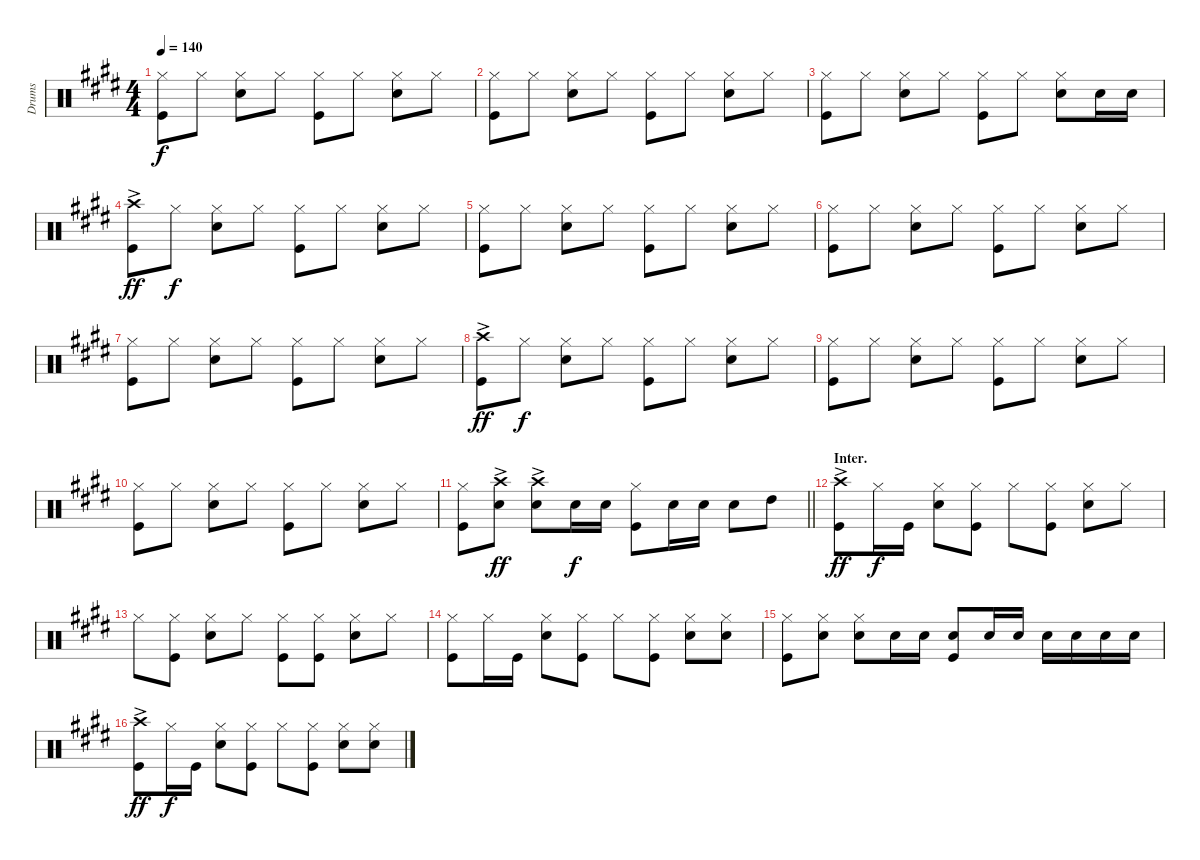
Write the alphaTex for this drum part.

\track ("Drums" "Drums") {instrument percussion}
\staff {score}
\articulation defaults
\ts (4 4)
\tempo 140
\clef neutral
\ks e
("Hi-Hat (closed)" "Kick (hit)").8{dy f} "Hi-Hat (closed)".8 ("Snare (hit) 2" "Hi-Hat (closed)").8 "Hi-Hat (closed)".8 ("Kick (hit)" "Hi-Hat (closed)").8 "Hi-Hat (closed)".8 ("Hi-Hat (closed)" "Snare (hit) 2").8 "Hi-Hat (closed)".8 |
("Hi-Hat (closed)" "Kick (hit)").8 "Hi-Hat (closed)".8 ("Snare (hit) 2" "Hi-Hat (closed)").8 "Hi-Hat (closed)".8 ("Kick (hit)" "Hi-Hat (closed)").8 "Hi-Hat (closed)".8 ("Hi-Hat (closed)" "Snare (hit) 2").8 "Hi-Hat (closed)".8 |
("Hi-Hat (closed)" "Kick (hit)").8 "Hi-Hat (closed)".8 ("Snare (hit) 2" "Hi-Hat (closed)").8 "Hi-Hat (closed)".8 ("Kick (hit)" "Hi-Hat (closed)").8 "Hi-Hat (closed)".8 ("Hi-Hat (closed)" "Snare (hit) 2").8 "Snare (hit) 2".16 "Snare (hit) 2".16 |
("Crash high (hit)"{ac} "Kick (hit)").8{dy ff} "Hi-Hat (closed)".8{dy f} ("Snare (hit) 2" "Hi-Hat (closed)").8 "Hi-Hat (closed)".8 ("Kick (hit)" "Hi-Hat (closed)").8 "Hi-Hat (closed)".8 ("Hi-Hat (closed)" "Snare (hit) 2").8 "Hi-Hat (closed)".8 |
("Hi-Hat (closed)" "Kick (hit)").8 "Hi-Hat (closed)".8 ("Snare (hit) 2" "Hi-Hat (closed)").8 "Hi-Hat (closed)".8 ("Kick (hit)" "Hi-Hat (closed)").8 "Hi-Hat (closed)".8 ("Hi-Hat (closed)" "Snare (hit) 2").8 "Hi-Hat (closed)".8 |
("Hi-Hat (closed)" "Kick (hit)").8 "Hi-Hat (closed)".8 ("Snare (hit) 2" "Hi-Hat (closed)").8 "Hi-Hat (closed)".8 ("Kick (hit)" "Hi-Hat (closed)").8 "Hi-Hat (closed)".8 ("Hi-Hat (closed)" "Snare (hit) 2").8 "Hi-Hat (closed)".8 |
("Hi-Hat (closed)" "Kick (hit)").8 "Hi-Hat (closed)".8 ("Snare (hit) 2" "Hi-Hat (closed)").8 "Hi-Hat (closed)".8 ("Kick (hit)" "Hi-Hat (closed)").8 "Hi-Hat (closed)".8 ("Hi-Hat (closed)" "Snare (hit) 2").8 "Hi-Hat (closed)".8 |
("Crash high (hit)"{ac} "Kick (hit)").8{dy ff} "Hi-Hat (closed)".8{dy f} ("Snare (hit) 2" "Hi-Hat (closed)").8 "Hi-Hat (closed)".8 ("Kick (hit)" "Hi-Hat (closed)").8 "Hi-Hat (closed)".8 ("Hi-Hat (closed)" "Snare (hit) 2").8 "Hi-Hat (closed)".8 |
("Hi-Hat (closed)" "Kick (hit)").8 "Hi-Hat (closed)".8 ("Snare (hit) 2" "Hi-Hat (closed)").8 "Hi-Hat (closed)".8 ("Kick (hit)" "Hi-Hat (closed)").8 "Hi-Hat (closed)".8 ("Hi-Hat (closed)" "Snare (hit) 2").8 "Hi-Hat (closed)".8 |
("Hi-Hat (closed)" "Kick (hit)").8 "Hi-Hat (closed)".8 ("Snare (hit) 2" "Hi-Hat (closed)").8 "Hi-Hat (closed)".8 ("Kick (hit)" "Hi-Hat (closed)").8 "Hi-Hat (closed)".8 ("Hi-Hat (closed)" "Snare (hit) 2").8 "Hi-Hat (closed)".8 |
\barLineRight lightlight
("Kick (hit)" "Hi-Hat (closed)").8 ("Snare (hit) 2" "Crash high (hit)"{ac}).8{dy ff} ("Crash high (hit)"{ac} "Snare (hit) 2").8 "Snare (hit) 2".16{dy f} "Snare (hit) 2".16 ("Hi-Hat (closed)" "Kick (hit)").8 "Snare (hit) 2".16 "Snare (hit) 2".16 "Snare (hit) 2".8 "High Tom (hit)".8 |
\section ("" "Inter.")
("Crash high (hit)"{ac} "Kick (hit)").8{dy ff} "Hi-Hat (closed)".16{dy f} "Kick (hit)".16 ("Hi-Hat (closed)" "Snare (hit) 2").8 ("Hi-Hat (closed)" "Kick (hit)").8 "Hi-Hat (closed)".8 ("Hi-Hat (closed)" "Kick (hit)").8 ("Hi-Hat (closed)" "Snare (hit) 2").8 "Hi-Hat (closed)".8 |
"Hi-Hat (closed)".8 ("Kick (hit)" "Hi-Hat (closed)").8 ("Hi-Hat (closed)" "Snare (hit) 2").8 "Hi-Hat (closed)".8 ("Kick (hit)" "Hi-Hat (closed)").8 ("Hi-Hat (closed)" "Kick (hit)").8 ("Hi-Hat (closed)" "Snare (hit) 2").8 "Hi-Hat (closed)".8 |
("Hi-Hat (closed)" "Kick (hit)").8 "Hi-Hat (closed)".16 "Kick (hit)".16 ("Hi-Hat (closed)" "Snare (hit) 2").8 ("Hi-Hat (closed)" "Kick (hit)").8 "Hi-Hat (closed)".8 ("Hi-Hat (closed)" "Kick (hit)").8 ("Hi-Hat (closed)" "Snare (hit) 2").8 ("Hi-Hat (closed)" "Snare (hit) 2").8 |
("Hi-Hat (closed)" "Kick (hit)").8 ("Hi-Hat (closed)" "Snare (hit) 2").8 ("Hi-Hat (closed)" "Snare (hit) 2").8 "Snare (hit) 2".16 "Snare (hit) 2".16 ("Snare (hit) 2" "Kick (hit)").8 "Snare (hit) 2".16 "Snare (hit) 2".16 "Snare (hit) 2".16 "Snare (hit) 2".16 "Snare (hit) 2".16 "Snare (hit) 2".16 |
("Crash high (hit)"{ac} "Kick (hit)").8{dy ff} "Hi-Hat (closed)".16{dy f} "Kick (hit)".16 ("Hi-Hat (closed)" "Snare (hit) 2").8 ("Hi-Hat (closed)" "Kick (hit)").8 "Hi-Hat (closed)".8 ("Hi-Hat (closed)" "Kick (hit)").8 ("Hi-Hat (closed)" "Snare (hit) 2").8 ("Hi-Hat (closed)" "Snare (hit) 2").8
